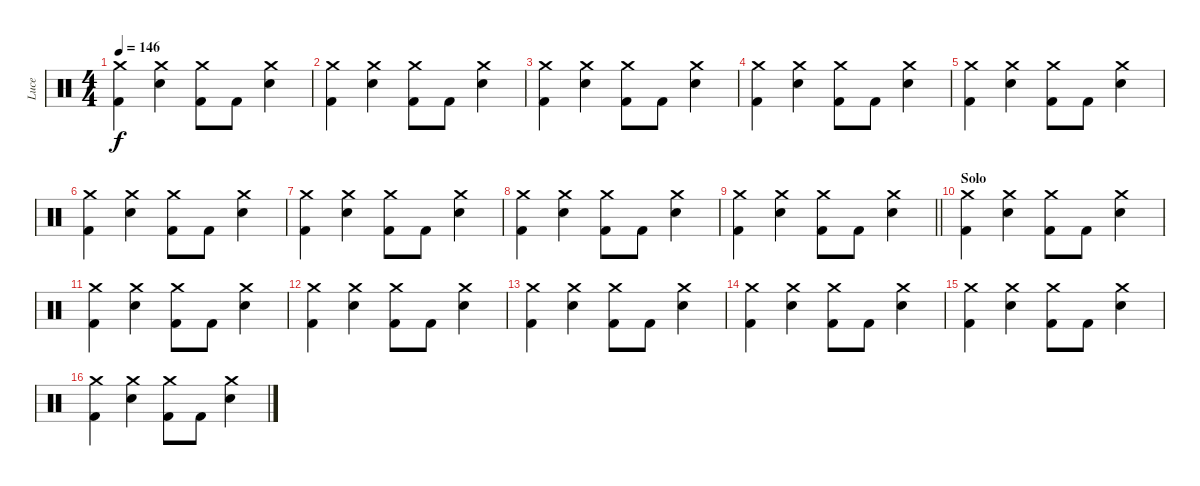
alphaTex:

\track ("Luce" "Luce") {instrument percussion}
\staff {score}
\articulation defaults
\ts (4 4)
\tempo 146
\clef neutral
\ks c
("Kick (hit) 2" "Crash medium (hit)").4{dy f} ("Electric Snare (hit)" "Crash medium (hit)").4 ("Kick (hit) 2" "Crash medium (hit)").8 "Kick (hit) 2".8 ("Electric Snare (hit)" "Crash medium (hit)").4 |
("Kick (hit) 2" "Crash medium (hit)").4 ("Crash medium (hit)" "Electric Snare (hit)").4 ("Kick (hit) 2" "Crash medium (hit)").8 "Kick (hit) 2".8 ("Crash medium (hit)" "Electric Snare (hit)").4 |
("Kick (hit) 2" "Crash medium (hit)").4 ("Electric Snare (hit)" "Crash medium (hit)").4 ("Kick (hit) 2" "Crash medium (hit)").8 "Kick (hit) 2".8 ("Electric Snare (hit)" "Crash medium (hit)").4 |
("Kick (hit) 2" "Crash medium (hit)").4 ("Crash medium (hit)" "Electric Snare (hit)").4 ("Kick (hit) 2" "Crash medium (hit)").8 "Kick (hit) 2".8 ("Crash medium (hit)" "Electric Snare (hit)").4 |
("Kick (hit) 2" "Crash medium (hit)").4 ("Electric Snare (hit)" "Crash medium (hit)").4 ("Kick (hit) 2" "Crash medium (hit)").8 "Kick (hit) 2".8 ("Electric Snare (hit)" "Crash medium (hit)").4 |
("Kick (hit) 2" "Crash medium (hit)").4 ("Crash medium (hit)" "Electric Snare (hit)").4 ("Kick (hit) 2" "Crash medium (hit)").8 "Kick (hit) 2".8 ("Crash medium (hit)" "Electric Snare (hit)").4 |
("Kick (hit) 2" "Crash medium (hit)").4 ("Electric Snare (hit)" "Crash medium (hit)").4 ("Kick (hit) 2" "Crash medium (hit)").8 "Kick (hit) 2".8 ("Electric Snare (hit)" "Crash medium (hit)").4 |
("Kick (hit) 2" "Crash medium (hit)").4 ("Crash medium (hit)" "Electric Snare (hit)").4 ("Kick (hit) 2" "Crash medium (hit)").8 "Kick (hit) 2".8 ("Crash medium (hit)" "Electric Snare (hit)").4 |
\barLineRight lightlight
("Kick (hit) 2" "Crash medium (hit)").4 ("Electric Snare (hit)" "Crash medium (hit)").4 ("Kick (hit) 2" "Crash medium (hit)").8 "Kick (hit) 2".8 ("Electric Snare (hit)" "Crash medium (hit)").4 |
\section ("" "Solo")
("Kick (hit) 2" "Crash medium (hit)").4 ("Electric Snare (hit)" "Crash medium (hit)").4 ("Kick (hit) 2" "Crash medium (hit)").8 "Kick (hit) 2".8 ("Electric Snare (hit)" "Crash medium (hit)").4 |
("Kick (hit) 2" "Crash medium (hit)").4 ("Crash medium (hit)" "Electric Snare (hit)").4 ("Kick (hit) 2" "Crash medium (hit)").8 "Kick (hit) 2".8 ("Crash medium (hit)" "Electric Snare (hit)").4 |
("Kick (hit) 2" "Crash medium (hit)").4 ("Electric Snare (hit)" "Crash medium (hit)").4 ("Kick (hit) 2" "Crash medium (hit)").8 "Kick (hit) 2".8 ("Electric Snare (hit)" "Crash medium (hit)").4 |
("Kick (hit) 2" "Crash medium (hit)").4 ("Crash medium (hit)" "Electric Snare (hit)").4 ("Kick (hit) 2" "Crash medium (hit)").8 "Kick (hit) 2".8 ("Crash medium (hit)" "Electric Snare (hit)").4 |
("Kick (hit) 2" "Crash medium (hit)").4 ("Crash medium (hit)" "Electric Snare (hit)").4 ("Kick (hit) 2" "Crash medium (hit)").8 "Kick (hit) 2".8 ("Crash medium (hit)" "Electric Snare (hit)").4 |
("Kick (hit) 2" "Crash medium (hit)").4 ("Electric Snare (hit)" "Crash medium (hit)").4 ("Kick (hit) 2" "Crash medium (hit)").8 "Kick (hit) 2".8 ("Electric Snare (hit)" "Crash medium (hit)").4 |
("Kick (hit) 2" "Crash medium (hit)").4 ("Crash medium (hit)" "Electric Snare (hit)").4 ("Kick (hit) 2" "Crash medium (hit)").8 "Kick (hit) 2".8 ("Crash medium (hit)" "Electric Snare (hit)").4
